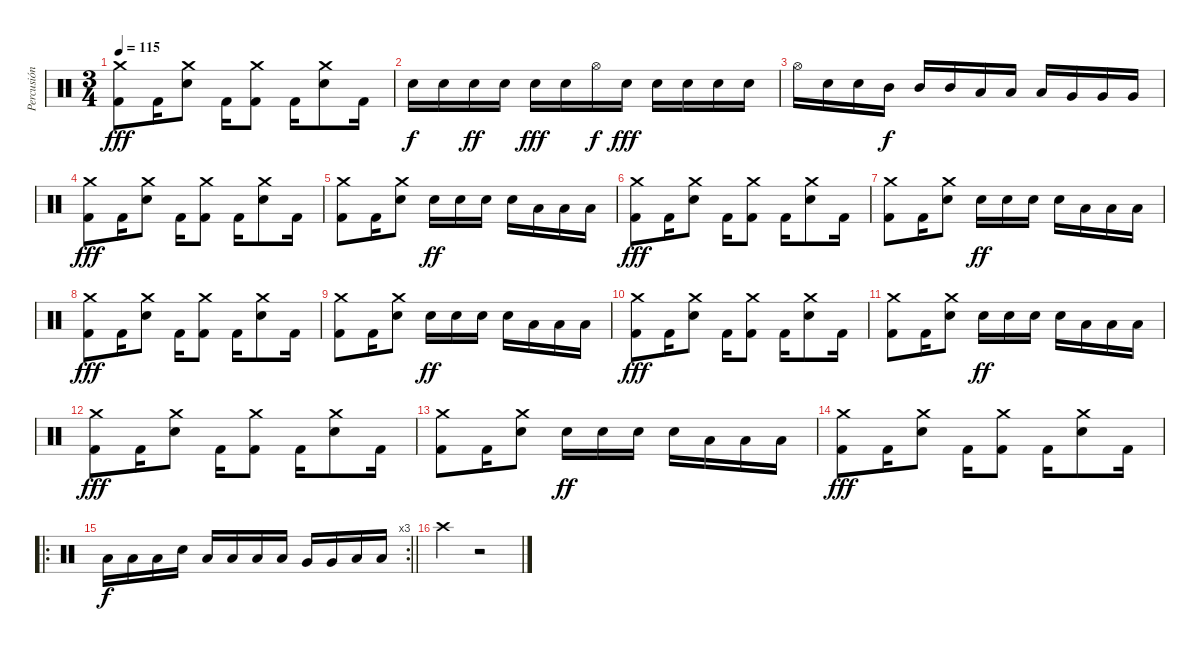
\track ("Percusión" "Percusión") {instrument percussion}
\staff {score}
\articulation defaults
\ts (3 4)
\tempo 115
\clef neutral
\ks c
("Crash medium (hit)" "Kick (hit) 2").8{dy fff} "Kick (hit) 2".16 ("Crash medium (hit)" "Electric Snare (hit)").8 "Kick (hit) 2".16 ("Crash medium (hit)" "Kick (hit) 2").8 "Kick (hit) 2".16 ("Crash medium (hit)" "Electric Snare (hit)").8 "Kick (hit) 2".16 |
"Electric Snare (hit)".16{dy f} "Electric Snare (hit)".16 "Electric Snare (hit)".16{dy ff} "Electric Snare (hit)".16 "Electric Snare (hit)".16{dy fff} "Electric Snare (hit)".16 "Hi-Hat (open)".16{dy f} "Electric Snare (hit)".16{dy fff} "Electric Snare (hit)".16 "Electric Snare (hit)".16 "Electric Snare (hit)".16 "Electric Snare (hit)".16 |
"Hi-Hat (open)".16 "Electric Snare (hit)".16 "Electric Snare (hit)".16 "Mid Tom (hit)".16{dy f} "Mid Tom (hit)".16 "Mid Tom (hit)".16 "Low Tom (hit)".16 "Low Tom (hit)".16 "Low Tom (hit)".16 "Very Low Tom (hit)".16 "Very Low Tom (hit)".16 "Very Low Tom (hit)".16 |
("Crash medium (hit)" "Kick (hit) 2").8{dy fff} "Kick (hit) 2".16 ("Crash medium (hit)" "Electric Snare (hit)").8 "Kick (hit) 2".16 ("Crash medium (hit)" "Kick (hit) 2").8 "Kick (hit) 2".16 ("Crash medium (hit)" "Electric Snare (hit)").8 "Kick (hit) 2".16 |
("Crash medium (hit)" "Kick (hit) 2").8 "Kick (hit) 2".16 ("Crash medium (hit)" "Electric Snare (hit)").8 "Electric Snare (hit)".16{dy ff} "Electric Snare (hit)".16 "Electric Snare (hit)".16 "Electric Snare (hit)".16 "Low Tom (hit)".16 "Low Tom (hit)".16 "Low Tom (hit)".16 |
("Crash medium (hit)" "Kick (hit) 2").8{dy fff} "Kick (hit) 2".16 ("Crash medium (hit)" "Electric Snare (hit)").8 "Kick (hit) 2".16 ("Crash medium (hit)" "Kick (hit) 2").8 "Kick (hit) 2".16 ("Crash medium (hit)" "Electric Snare (hit)").8 "Kick (hit) 2".16 |
("Crash medium (hit)" "Kick (hit) 2").8 "Kick (hit) 2".16 ("Crash medium (hit)" "Electric Snare (hit)").8 "Electric Snare (hit)".16{dy ff} "Electric Snare (hit)".16 "Electric Snare (hit)".16 "Electric Snare (hit)".16 "Low Tom (hit)".16 "Low Tom (hit)".16 "Low Tom (hit)".16 |
("Crash medium (hit)" "Kick (hit) 2").8{dy fff} "Kick (hit) 2".16 ("Crash medium (hit)" "Electric Snare (hit)").8 "Kick (hit) 2".16 ("Crash medium (hit)" "Kick (hit) 2").8 "Kick (hit) 2".16 ("Crash medium (hit)" "Electric Snare (hit)").8 "Kick (hit) 2".16 |
("Crash medium (hit)" "Kick (hit) 2").8 "Kick (hit) 2".16 ("Crash medium (hit)" "Electric Snare (hit)").8 "Electric Snare (hit)".16{dy ff} "Electric Snare (hit)".16 "Electric Snare (hit)".16 "Electric Snare (hit)".16 "Low Tom (hit)".16 "Low Tom (hit)".16 "Low Tom (hit)".16 |
("Crash medium (hit)" "Kick (hit) 2").8{dy fff} "Kick (hit) 2".16 ("Crash medium (hit)" "Electric Snare (hit)").8 "Kick (hit) 2".16 ("Crash medium (hit)" "Kick (hit) 2").8 "Kick (hit) 2".16 ("Crash medium (hit)" "Electric Snare (hit)").8 "Kick (hit) 2".16 |
("Crash medium (hit)" "Kick (hit) 2").8 "Kick (hit) 2".16 ("Crash medium (hit)" "Electric Snare (hit)").8 "Electric Snare (hit)".16{dy ff} "Electric Snare (hit)".16 "Electric Snare (hit)".16 "Electric Snare (hit)".16 "Low Tom (hit)".16 "Low Tom (hit)".16 "Low Tom (hit)".16 |
("Crash medium (hit)" "Kick (hit) 2").8{dy fff} "Kick (hit) 2".16 ("Crash medium (hit)" "Electric Snare (hit)").8 "Kick (hit) 2".16 ("Crash medium (hit)" "Kick (hit) 2").8 "Kick (hit) 2".16 ("Crash medium (hit)" "Electric Snare (hit)").8 "Kick (hit) 2".16 |
("Crash medium (hit)" "Kick (hit) 2").8 "Kick (hit) 2".16 ("Crash medium (hit)" "Electric Snare (hit)").8 "Electric Snare (hit)".16{dy ff} "Electric Snare (hit)".16 "Electric Snare (hit)".16 "Electric Snare (hit)".16 "Low Tom (hit)".16 "Low Tom (hit)".16 "Low Tom (hit)".16 |
("Crash medium (hit)" "Kick (hit) 2").8{dy fff} "Kick (hit) 2".16 ("Crash medium (hit)" "Electric Snare (hit)").8 "Kick (hit) 2".16 ("Crash medium (hit)" "Kick (hit) 2").8 "Kick (hit) 2".16 ("Crash medium (hit)" "Electric Snare (hit)").8 "Kick (hit) 2".16 |
\ro
\rc 3
\barLineRight lightlight "Low Tom (hit)".16{dy f} "Low Tom (hit)".16 "Low Tom (hit)".16 "Electric Snare (hit)".16 "Low Tom (hit)".16 "Low Tom (hit)".16 "Low Tom (hit)".16 "Low Tom (hit)".16 "Very Low Tom (hit)".16 "Very Low Tom (hit)".16 "Low Floor Tom (hit)".16 "Low Floor Tom (hit)".16
|
"Crash high (hit)".4 r.2
